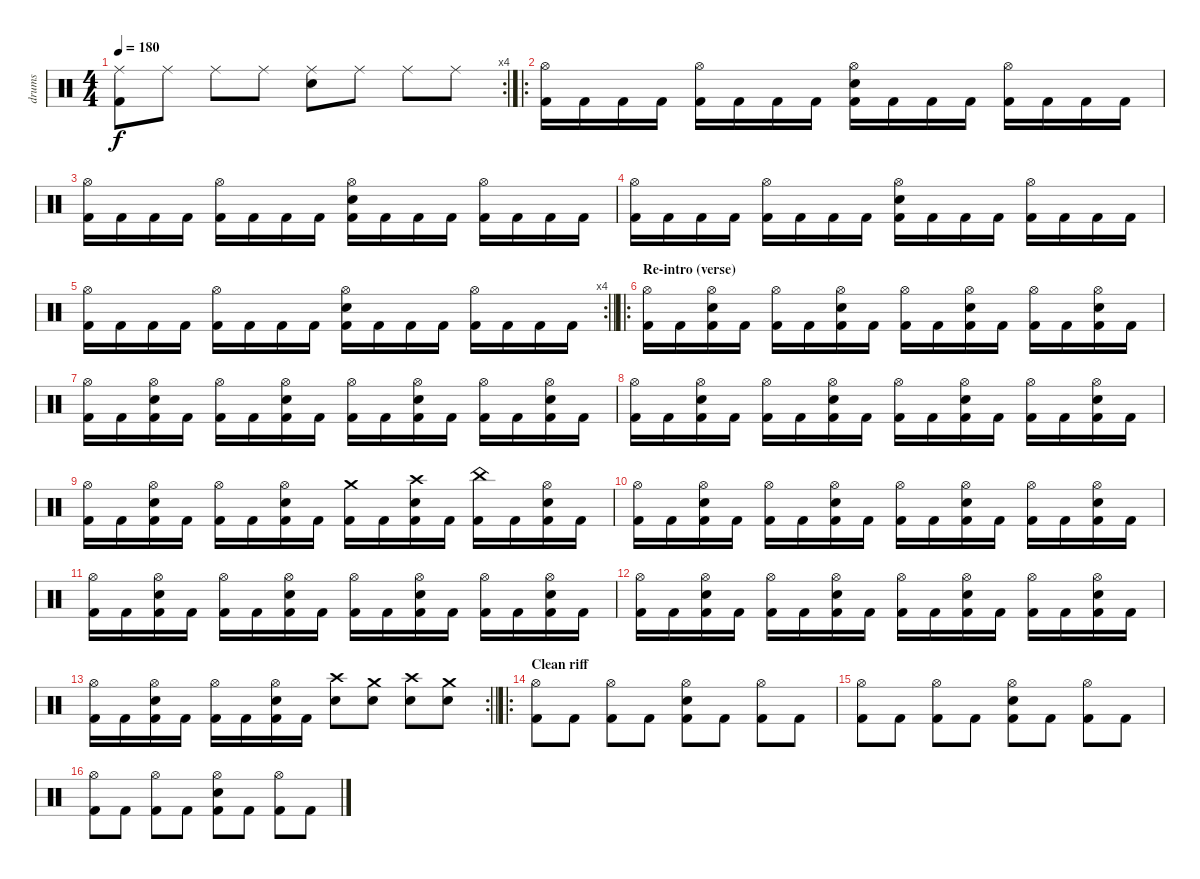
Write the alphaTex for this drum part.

\track ("drums" "drums") {instrument percussion}
\staff {score}
\articulation defaults
\rc 4
\ts (4 4)
\tempo 180
\clef neutral
\ks c
("Ride (middle)" "Kick (hit) 2").8{dy f} "Ride (middle)".8 "Ride (middle)".8 "Ride (middle)".8 ("Ride (middle)" "Snare (hit) 2").8 "Ride (middle)".8 "Ride (middle)".8 "Ride (middle)".8 |
\ro
("Hi-Hat (open)" "Kick (hit) 2").16 "Kick (hit) 2".16 "Kick (hit) 2".16 "Kick (hit) 2".16 ("Hi-Hat (open)" "Kick (hit) 2").16 "Kick (hit) 2".16 "Kick (hit) 2".16 "Kick (hit) 2".16 ("Hi-Hat (open)" "Snare (hit) 2" "Kick (hit) 2").16 "Kick (hit) 2".16 "Kick (hit) 2".16 "Kick (hit) 2".16 ("Hi-Hat (open)" "Kick (hit) 2").16 "Kick (hit) 2".16 "Kick (hit) 2".16 "Kick (hit) 2".16 |
("Hi-Hat (open)" "Kick (hit) 2").16 "Kick (hit) 2".16 "Kick (hit) 2".16 "Kick (hit) 2".16 ("Hi-Hat (open)" "Kick (hit) 2").16 "Kick (hit) 2".16 "Kick (hit) 2".16 "Kick (hit) 2".16 ("Hi-Hat (open)" "Snare (hit) 2" "Kick (hit) 2").16 "Kick (hit) 2".16 "Kick (hit) 2".16 "Kick (hit) 2".16 ("Hi-Hat (open)" "Kick (hit) 2").16 "Kick (hit) 2".16 "Kick (hit) 2".16 "Kick (hit) 2".16 |
("Hi-Hat (open)" "Kick (hit) 2").16 "Kick (hit) 2".16 "Kick (hit) 2".16 "Kick (hit) 2".16 ("Hi-Hat (open)" "Kick (hit) 2").16 "Kick (hit) 2".16 "Kick (hit) 2".16 "Kick (hit) 2".16 ("Hi-Hat (open)" "Snare (hit) 2" "Kick (hit) 2").16 "Kick (hit) 2".16 "Kick (hit) 2".16 "Kick (hit) 2".16 ("Hi-Hat (open)" "Kick (hit) 2").16 "Kick (hit) 2".16 "Kick (hit) 2".16 "Kick (hit) 2".16 |
\rc 4
\barLineRight lightlight
("Hi-Hat (open)" "Kick (hit) 2").16 "Kick (hit) 2".16 "Kick (hit) 2".16 "Kick (hit) 2".16 ("Hi-Hat (open)" "Kick (hit) 2").16 "Kick (hit) 2".16 "Kick (hit) 2".16 "Kick (hit) 2".16 ("Hi-Hat (open)" "Snare (hit) 2" "Kick (hit) 2").16 "Kick (hit) 2".16 "Kick (hit) 2".16 "Kick (hit) 2".16 ("Hi-Hat (open)" "Kick (hit) 2").16 "Kick (hit) 2".16 "Kick (hit) 2".16 "Kick (hit) 2".16 |
\ro
\section ("" "Re-intro (verse)")
("Hi-Hat (open)" "Kick (hit) 2").16 "Kick (hit) 2".16 ("Hi-Hat (open)" "Snare (hit) 2" "Kick (hit) 2").16 "Kick (hit) 2".16 ("Hi-Hat (open)" "Kick (hit) 2").16 "Kick (hit) 2".16 ("Hi-Hat (open)" "Snare (hit) 2" "Kick (hit) 2").16 "Kick (hit) 2".16 ("Hi-Hat (open)" "Kick (hit) 2").16 "Kick (hit) 2".16 ("Hi-Hat (open)" "Snare (hit) 2" "Kick (hit) 2").16 "Kick (hit) 2".16 ("Hi-Hat (open)" "Kick (hit) 2").16 "Kick (hit) 2".16 ("Hi-Hat (open)" "Snare (hit) 2" "Kick (hit) 2").16 "Kick (hit) 2".16 |
("Hi-Hat (open)" "Kick (hit) 2").16 "Kick (hit) 2".16 ("Hi-Hat (open)" "Snare (hit) 2" "Kick (hit) 2").16 "Kick (hit) 2".16 ("Hi-Hat (open)" "Kick (hit) 2").16 "Kick (hit) 2".16 ("Hi-Hat (open)" "Snare (hit) 2" "Kick (hit) 2").16 "Kick (hit) 2".16 ("Hi-Hat (open)" "Kick (hit) 2").16 "Kick (hit) 2".16 ("Hi-Hat (open)" "Snare (hit) 2" "Kick (hit) 2").16 "Kick (hit) 2".16 ("Hi-Hat (open)" "Kick (hit) 2").16 "Kick (hit) 2".16 ("Hi-Hat (open)" "Snare (hit) 2" "Kick (hit) 2").16 "Kick (hit) 2".16 |
("Hi-Hat (open)" "Kick (hit) 2").16 "Kick (hit) 2".16 ("Hi-Hat (open)" "Snare (hit) 2" "Kick (hit) 2").16 "Kick (hit) 2".16 ("Hi-Hat (open)" "Kick (hit) 2").16 "Kick (hit) 2".16 ("Hi-Hat (open)" "Snare (hit) 2" "Kick (hit) 2").16 "Kick (hit) 2".16 ("Hi-Hat (open)" "Kick (hit) 2").16 "Kick (hit) 2".16 ("Hi-Hat (open)" "Snare (hit) 2" "Kick (hit) 2").16 "Kick (hit) 2".16 ("Hi-Hat (open)" "Kick (hit) 2").16 "Kick (hit) 2".16 ("Hi-Hat (open)" "Snare (hit) 2" "Kick (hit) 2").16 "Kick (hit) 2".16 |
("Hi-Hat (open)" "Kick (hit) 2").16 "Kick (hit) 2".16 ("Hi-Hat (open)" "Snare (hit) 2" "Kick (hit) 2").16 "Kick (hit) 2".16 ("Hi-Hat (open)" "Kick (hit) 2").16 "Kick (hit) 2".16 ("Hi-Hat (open)" "Snare (hit) 2" "Kick (hit) 2").16 "Kick (hit) 2".16 ("Crash medium (hit)" "Kick (hit) 2").16 "Kick (hit) 2".16 ("Crash high (hit)" "Snare (hit) 2" "Kick (hit) 2").16 "Kick (hit) 2".16 ("China (hit)" "Kick (hit) 2").16 "Kick (hit) 2".16 ("Hi-Hat (open)" "Snare (hit) 2" "Kick (hit) 2").16 "Kick (hit) 2".16 |
("Hi-Hat (open)" "Kick (hit) 2").16 "Kick (hit) 2".16 ("Hi-Hat (open)" "Snare (hit) 2" "Kick (hit) 2").16 "Kick (hit) 2".16 ("Hi-Hat (open)" "Kick (hit) 2").16 "Kick (hit) 2".16 ("Hi-Hat (open)" "Snare (hit) 2" "Kick (hit) 2").16 "Kick (hit) 2".16 ("Hi-Hat (open)" "Kick (hit) 2").16 "Kick (hit) 2".16 ("Hi-Hat (open)" "Snare (hit) 2" "Kick (hit) 2").16 "Kick (hit) 2".16 ("Hi-Hat (open)" "Kick (hit) 2").16 "Kick (hit) 2".16 ("Hi-Hat (open)" "Snare (hit) 2" "Kick (hit) 2").16 "Kick (hit) 2".16 |
("Hi-Hat (open)" "Kick (hit) 2").16 "Kick (hit) 2".16 ("Hi-Hat (open)" "Snare (hit) 2" "Kick (hit) 2").16 "Kick (hit) 2".16 ("Hi-Hat (open)" "Kick (hit) 2").16 "Kick (hit) 2".16 ("Hi-Hat (open)" "Snare (hit) 2" "Kick (hit) 2").16 "Kick (hit) 2".16 ("Hi-Hat (open)" "Kick (hit) 2").16 "Kick (hit) 2".16 ("Hi-Hat (open)" "Snare (hit) 2" "Kick (hit) 2").16 "Kick (hit) 2".16 ("Hi-Hat (open)" "Kick (hit) 2").16 "Kick (hit) 2".16 ("Hi-Hat (open)" "Snare (hit) 2" "Kick (hit) 2").16 "Kick (hit) 2".16 |
("Hi-Hat (open)" "Kick (hit) 2").16 "Kick (hit) 2".16 ("Hi-Hat (open)" "Snare (hit) 2" "Kick (hit) 2").16 "Kick (hit) 2".16 ("Hi-Hat (open)" "Kick (hit) 2").16 "Kick (hit) 2".16 ("Hi-Hat (open)" "Snare (hit) 2" "Kick (hit) 2").16 "Kick (hit) 2".16 ("Hi-Hat (open)" "Kick (hit) 2").16 "Kick (hit) 2".16 ("Hi-Hat (open)" "Snare (hit) 2" "Kick (hit) 2").16 "Kick (hit) 2".16 ("Hi-Hat (open)" "Kick (hit) 2").16 "Kick (hit) 2".16 ("Hi-Hat (open)" "Snare (hit) 2" "Kick (hit) 2").16 "Kick (hit) 2".16 |
\rc 2
\barLineRight lightlight
("Hi-Hat (open)" "Kick (hit) 2").16 "Kick (hit) 2".16 ("Hi-Hat (open)" "Snare (hit) 2" "Kick (hit) 2").16 "Kick (hit) 2".16 ("Hi-Hat (open)" "Kick (hit) 2").16 "Kick (hit) 2".16 ("Hi-Hat (open)" "Snare (hit) 2" "Kick (hit) 2").16 "Kick (hit) 2".16 ("Crash high (hit)" "Snare (hit) 2").8 ("Crash medium (hit)" "Snare (hit) 2").8 ("Crash high (hit)" "Snare (hit) 2").8 ("Crash medium (hit)" "Snare (hit) 2").8 |
\ro
\section ("" "Clean riff")
("Hi-Hat (open)" "Kick (hit) 2").8 "Kick (hit) 2".8 ("Hi-Hat (open)" "Kick (hit) 2").8 "Kick (hit) 2".8 ("Hi-Hat (open)" "Snare (hit) 2" "Kick (hit) 2").8 "Kick (hit) 2".8 ("Hi-Hat (open)" "Kick (hit) 2").8 "Kick (hit) 2".8 |
("Hi-Hat (open)" "Kick (hit) 2").8 "Kick (hit) 2".8 ("Hi-Hat (open)" "Kick (hit) 2").8 "Kick (hit) 2".8 ("Hi-Hat (open)" "Snare (hit) 2" "Kick (hit) 2").8 "Kick (hit) 2".8 ("Hi-Hat (open)" "Kick (hit) 2").8 "Kick (hit) 2".8 |
("Hi-Hat (open)" "Kick (hit) 2").8 "Kick (hit) 2".8 ("Hi-Hat (open)" "Kick (hit) 2").8 "Kick (hit) 2".8 ("Hi-Hat (open)" "Snare (hit) 2" "Kick (hit) 2").8 "Kick (hit) 2".8 ("Hi-Hat (open)" "Kick (hit) 2").8 "Kick (hit) 2".8
